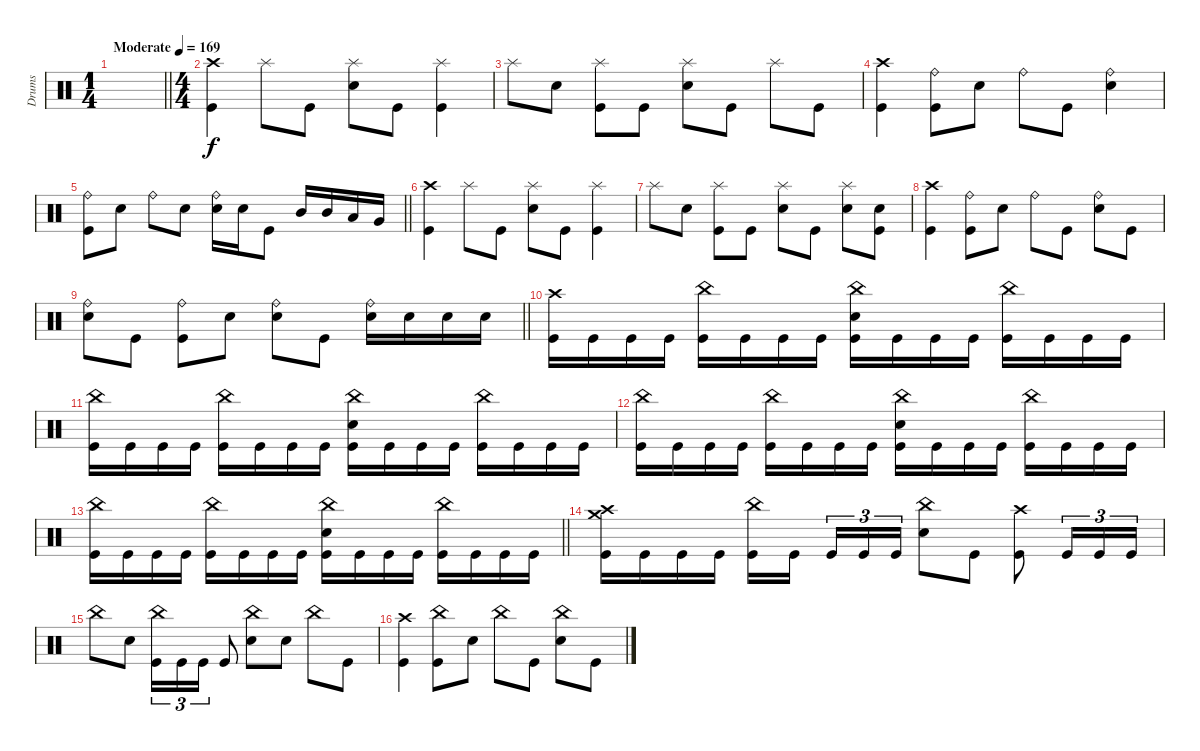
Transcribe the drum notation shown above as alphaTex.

\track ("Drums" "Drums") {instrument percussion}
\staff
\articulation defaults
\ts (1 4)
\tempo (169 "Moderate")
\clef neutral
\barLineRight lightlight
\ks c
|
\ts (4 4)
("Crash high (hit)" "Kick (hit)").4 "Splash (hit)".8 "Kick (hit)".8 ("Splash (hit)" "Electric Snare (hit)").8 "Kick (hit)".8 ("Splash (hit)" "Kick (hit)").4 |
"Splash (hit)".8 "Electric Snare (hit)".8 ("Splash (hit)" "Kick (hit)").8 "Kick (hit)".8 ("Splash (hit)" "Electric Snare (hit)").8 "Kick (hit)".8 "Splash (hit)".8 "Kick (hit)".8 |
("Crash high (hit)" "Kick (hit)").4 ("Ride (bell)" "Kick (hit)").8 "Electric Snare (hit)".8 "Ride (bell)".8 "Kick (hit)".8 ("Ride (bell)" "Electric Snare (hit)").4 |
\barLineRight lightlight
("Ride (bell)" "Kick (hit)").8 "Electric Snare (hit)".8 "Ride (bell)".8 "Electric Snare (hit)".8 ("Ride (bell)" "Electric Snare (hit)").16 "Electric Snare (hit)".16 "Kick (hit)".8 "Mid Tom (hit)".16 "Mid Tom (hit)".16 "Low Tom (hit)".16 "Very Low Tom (hit)".16 |
("Crash high (hit)" "Kick (hit)").4 "Splash (hit)".8 "Kick (hit)".8 ("Splash (hit)" "Electric Snare (hit)").8 "Kick (hit)".8 ("Splash (hit)" "Kick (hit)").4 |
"Splash (hit)".8 "Electric Snare (hit)".8 ("Splash (hit)" "Kick (hit)").8 "Kick (hit)".8 ("Splash (hit)" "Electric Snare (hit)").8 "Kick (hit)".8 ("Splash (hit)" "Electric Snare (hit)").8 ("Electric Snare (hit)" "Kick (hit)").8 |
("Crash high (hit)" "Kick (hit)").4 ("Ride (bell)" "Kick (hit)").8 "Electric Snare (hit)".8 "Ride (bell)".8 "Kick (hit)".8 ("Ride (bell)" "Electric Snare (hit)").8 "Kick (hit)".8 |
\barLineRight lightlight
("Ride (bell)" "Electric Snare (hit)").8 "Kick (hit)".8 ("Ride (bell)" "Kick (hit)").8 "Electric Snare (hit)".8 ("Ride (bell)" "Electric Snare (hit)").8 "Kick (hit)".8 ("Ride (bell)" "Electric Snare (hit)").16 "Electric Snare (hit)".16 "Electric Snare (hit)".16 "Electric Snare (hit)".16 |
("Crash high (hit)" "Kick (hit)").16 "Kick (hit)".16 "Kick (hit)".16 "Kick (hit)".16 ("China (hit)" "Kick (hit)").16 "Kick (hit)".16 "Kick (hit)".16 "Kick (hit)".16 ("China (hit)" "Electric Snare (hit)" "Kick (hit)").16 "Kick (hit)".16 "Kick (hit)".16 "Kick (hit)".16 ("China (hit)" "Kick (hit)").16 "Kick (hit)".16 "Kick (hit)".16 "Kick (hit)".16 |
("China (hit)" "Kick (hit)").16 "Kick (hit)".16 "Kick (hit)".16 "Kick (hit)".16 ("China (hit)" "Kick (hit)").16 "Kick (hit)".16 "Kick (hit)".16 "Kick (hit)".16 ("China (hit)" "Electric Snare (hit)" "Kick (hit)").16 "Kick (hit)".16 "Kick (hit)".16 "Kick (hit)".16 ("China (hit)" "Kick (hit)").16 "Kick (hit)".16 "Kick (hit)".16 "Kick (hit)".16 |
("China (hit)" "Kick (hit)").16 "Kick (hit)".16 "Kick (hit)".16 "Kick (hit)".16 ("China (hit)" "Kick (hit)").16 "Kick (hit)".16 "Kick (hit)".16 "Kick (hit)".16 ("China (hit)" "Electric Snare (hit)" "Kick (hit)").16 "Kick (hit)".16 "Kick (hit)".16 "Kick (hit)".16 ("China (hit)" "Kick (hit)").16 "Kick (hit)".16 "Kick (hit)".16 "Kick (hit)".16 |
\barLineRight lightlight
("China (hit)" "Kick (hit)").16 "Kick (hit)".16 "Kick (hit)".16 "Kick (hit)".16 ("China (hit)" "Kick (hit)").16 "Kick (hit)".16 "Kick (hit)".16 "Kick (hit)".16 ("China (hit)" "Electric Snare (hit)" "Kick (hit)").16 "Kick (hit)".16 "Kick (hit)".16 "Kick (hit)".16 ("China (hit)" "Kick (hit)").16 "Kick (hit)".16 "Kick (hit)".16 "Kick (hit)".16 |
("Crash high (hit)" "Crash medium (hit)" "Kick (hit)").16 "Kick (hit)".16 "Kick (hit)".16 "Kick (hit)".16 ("China (hit)" "Kick (hit)").16 "Kick (hit)".16{beam splitsecondary} "Kick (hit)".16{tu (3 2)} "Kick (hit)".16{tu (3 2)} "Kick (hit)".16{tu (3 2)} ("China (hit)" "Electric Snare (hit)").8 "Kick (hit)".8 ("Crash high (hit)" "Kick (hit)").8 "Kick (hit)".16{tu (3 2)} "Kick (hit)".16{tu (3 2)} "Kick (hit)".16{tu (3 2)} |
"China (hit)".8 "Electric Snare (hit)".8 ("China (hit)" "Kick (hit)").16{tu (3 2)} "Kick (hit)".16{tu (3 2)} "Kick (hit)".16{tu (3 2)} "Kick (hit)".8 ("China (hit)" "Electric Snare (hit)").8 "Electric Snare (hit)".8 "China (hit)".8 "Kick (hit)".8 |
("Crash high (hit)" "Kick (hit)").4 ("China (hit)" "Kick (hit)").8 "Electric Snare (hit)".8 "China (hit)".8 "Kick (hit)".8 ("China (hit)" "Electric Snare (hit)").8 "Kick (hit)".8
